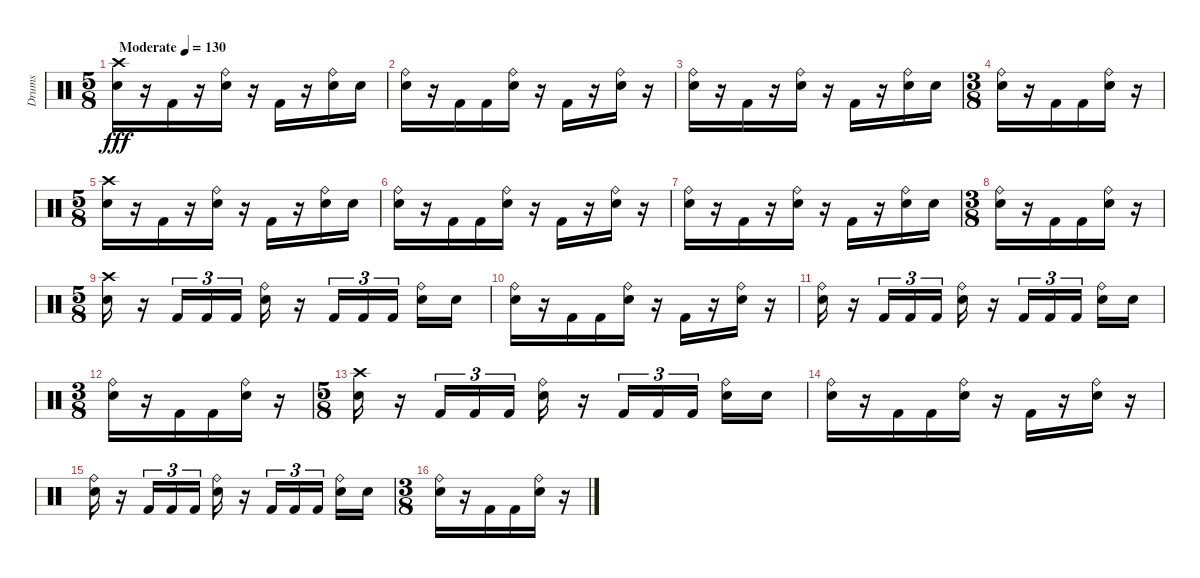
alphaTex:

\track ("Drums" "Drums") {instrument percussion}
\staff {score}
\articulation defaults
\ts (5 8)
\tempo (130 "Moderate")
\clef neutral
\ks c
("Crash high (hit)" "Electric Snare (hit)").16{dy fff} r.16 "Kick (hit) 2".16 r.16 ("Ride (bell)" "Electric Snare (hit)").16 r.16 "Kick (hit) 2".16 r.16 ("Ride (bell)" "Electric Snare (hit)").16 "Electric Snare (hit)".16 |
("Ride (bell)" "Electric Snare (hit)").16 r.16 "Kick (hit) 2".16 "Kick (hit) 2".16 ("Ride (bell)" "Electric Snare (hit)").16 r.16 "Kick (hit) 2".16 r.16 ("Ride (bell)" "Electric Snare (hit)").16 r.16 |
("Ride (bell)" "Electric Snare (hit)").16 r.16 "Kick (hit) 2".16 r.16 ("Ride (bell)" "Electric Snare (hit)").16 r.16 "Kick (hit) 2".16 r.16 ("Ride (bell)" "Electric Snare (hit)").16 "Electric Snare (hit)".16 |
\ts (3 8)
("Ride (bell)" "Electric Snare (hit)").16 r.16 "Kick (hit) 2".16 "Kick (hit) 2".16 ("Ride (bell)" "Electric Snare (hit)").16 r.16 |
\ts (5 8)
("Electric Snare (hit)" "Crash high (hit)").16 r.16 "Kick (hit) 2".16 r.16 ("Electric Snare (hit)" "Ride (bell)").16 r.16 "Kick (hit) 2".16 r.16 ("Electric Snare (hit)" "Ride (bell)").16 "Electric Snare (hit)".16 |
("Electric Snare (hit)" "Ride (bell)").16 r.16 "Kick (hit) 2".16 "Kick (hit) 2".16 ("Electric Snare (hit)" "Ride (bell)").16 r.16 "Kick (hit) 2".16 r.16 ("Electric Snare (hit)" "Ride (bell)").16 r.16 |
("Electric Snare (hit)" "Ride (bell)").16 r.16 "Kick (hit) 2".16 r.16 ("Electric Snare (hit)" "Ride (bell)").16 r.16 "Kick (hit) 2".16 r.16 ("Electric Snare (hit)" "Ride (bell)").16 "Electric Snare (hit)".16 |
\ts (3 8)
("Electric Snare (hit)" "Ride (bell)").16 r.16 "Kick (hit) 2".16 "Kick (hit) 2".16 ("Electric Snare (hit)" "Ride (bell)").16 r.16 |
\ts (5 8)
("Crash high (hit)" "Electric Snare (hit)").16 r.16 "Kick (hit) 2".16{tu (3 2)} "Kick (hit) 2".16{tu (3 2)} "Kick (hit) 2".16{tu (3 2)} ("Ride (bell)" "Electric Snare (hit)").16 r.16 "Kick (hit) 2".16{tu (3 2)} "Kick (hit) 2".16{tu (3 2)} "Kick (hit) 2".16{tu (3 2)} ("Ride (bell)" "Electric Snare (hit)").16 "Electric Snare (hit)".16 |
("Ride (bell)" "Electric Snare (hit)").16 r.16 "Kick (hit) 2".16 "Kick (hit) 2".16 ("Ride (bell)" "Electric Snare (hit)").16 r.16 "Kick (hit) 2".16 r.16 ("Ride (bell)" "Electric Snare (hit)").16 r.16 |
("Ride (bell)" "Electric Snare (hit)").16 r.16 "Kick (hit) 2".16{tu (3 2)} "Kick (hit) 2".16{tu (3 2)} "Kick (hit) 2".16{tu (3 2)} ("Ride (bell)" "Electric Snare (hit)").16 r.16 "Kick (hit) 2".16{tu (3 2)} "Kick (hit) 2".16{tu (3 2)} "Kick (hit) 2".16{tu (3 2)} ("Ride (bell)" "Electric Snare (hit)").16 "Electric Snare (hit)".16 |
\ts (3 8)
("Ride (bell)" "Electric Snare (hit)").16 r.16 "Kick (hit) 2".16 "Kick (hit) 2".16 ("Ride (bell)" "Electric Snare (hit)").16 r.16 |
\ts (5 8)
("Electric Snare (hit)" "Crash high (hit)").16 r.16 "Kick (hit) 2".16{tu (3 2)} "Kick (hit) 2".16{tu (3 2)} "Kick (hit) 2".16{tu (3 2)} ("Electric Snare (hit)" "Ride (bell)").16 r.16 "Kick (hit) 2".16{tu (3 2)} "Kick (hit) 2".16{tu (3 2)} "Kick (hit) 2".16{tu (3 2)} ("Electric Snare (hit)" "Ride (bell)").16 "Electric Snare (hit)".16 |
("Electric Snare (hit)" "Ride (bell)").16 r.16 "Kick (hit) 2".16 "Kick (hit) 2".16 ("Electric Snare (hit)" "Ride (bell)").16 r.16 "Kick (hit) 2".16 r.16 ("Electric Snare (hit)" "Ride (bell)").16 r.16 |
("Electric Snare (hit)" "Ride (bell)").16 r.16 "Kick (hit) 2".16{tu (3 2)} "Kick (hit) 2".16{tu (3 2)} "Kick (hit) 2".16{tu (3 2)} ("Electric Snare (hit)" "Ride (bell)").16 r.16 "Kick (hit) 2".16{tu (3 2)} "Kick (hit) 2".16{tu (3 2)} "Kick (hit) 2".16{tu (3 2)} ("Electric Snare (hit)" "Ride (bell)").16 "Electric Snare (hit)".16 |
\ts (3 8)
("Electric Snare (hit)" "Ride (bell)").16 r.16 "Kick (hit) 2".16 "Kick (hit) 2".16 ("Electric Snare (hit)" "Ride (bell)").16 r.16
